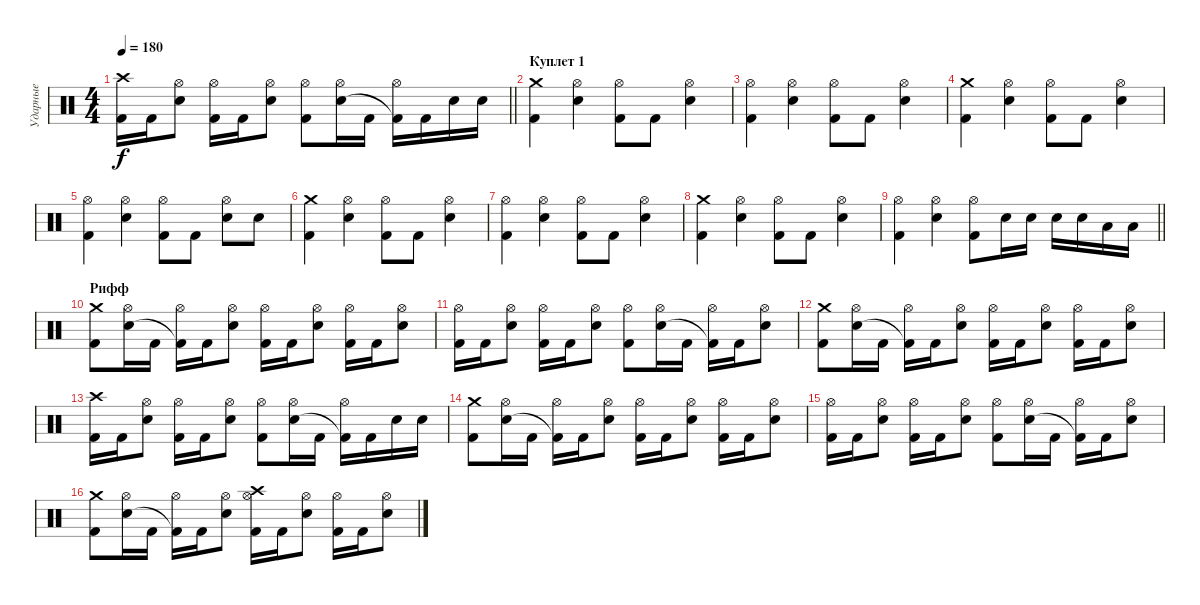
\track ("Ударные" "Ударные") {instrument percussion}
\staff {score}
\articulation defaults
\ts (4 4)
\tempo 180
\clef neutral
\barLineRight lightlight
\ks c
("Crash high (hit)" "Kick (hit) 2").16{dy f} "Kick (hit) 2".16 ("Hi-Hat (open)" "Snare (hit) 2").8 ("Hi-Hat (open)" "Kick (hit) 2").16 "Kick (hit) 2".16 ("Hi-Hat (open)" "Snare (hit) 2").8 ("Hi-Hat (open)" "Kick (hit) 2").8 ("Hi-Hat (open)" "Snare (hit) 2").16 "Kick (hit) 2".16 ("Hi-Hat (open)" "Kick (hit) 2"{t}).16 "Kick (hit) 2".16 "Snare (hit) 2".16 "Snare (hit) 2".16 |
\section ("" "Куплет 1")
("Crash medium (hit)" "Kick (hit) 2").4 ("Hi-Hat (open)" "Snare (hit) 2").4 ("Hi-Hat (open)" "Kick (hit) 2").8 "Kick (hit) 2".8 ("Hi-Hat (open)" "Snare (hit) 2").4 |
("Hi-Hat (open)" "Kick (hit) 2").4 ("Hi-Hat (open)" "Snare (hit) 2").4 ("Hi-Hat (open)" "Kick (hit) 2").8 "Kick (hit) 2".8 ("Hi-Hat (open)" "Snare (hit) 2").4 |
("Crash medium (hit)" "Kick (hit) 2").4 ("Hi-Hat (open)" "Snare (hit) 2").4 ("Hi-Hat (open)" "Kick (hit) 2").8 "Kick (hit) 2".8 ("Hi-Hat (open)" "Snare (hit) 2").4 |
("Hi-Hat (open)" "Kick (hit) 2").4 ("Hi-Hat (open)" "Snare (hit) 2").4 ("Hi-Hat (open)" "Kick (hit) 2").8 "Kick (hit) 2".8 ("Hi-Hat (open)" "Snare (hit) 2").8 "Snare (hit) 2".8 |
("Crash medium (hit)" "Kick (hit) 2").4 ("Hi-Hat (open)" "Snare (hit) 2").4 ("Hi-Hat (open)" "Kick (hit) 2").8 "Kick (hit) 2".8 ("Hi-Hat (open)" "Snare (hit) 2").4 |
("Hi-Hat (open)" "Kick (hit) 2").4 ("Hi-Hat (open)" "Snare (hit) 2").4 ("Hi-Hat (open)" "Kick (hit) 2").8 "Kick (hit) 2".8 ("Hi-Hat (open)" "Snare (hit) 2").4 |
("Crash medium (hit)" "Kick (hit) 2").4 ("Hi-Hat (open)" "Snare (hit) 2").4 ("Hi-Hat (open)" "Kick (hit) 2").8 "Kick (hit) 2".8 ("Hi-Hat (open)" "Snare (hit) 2").4 |
\barLineRight lightlight
("Hi-Hat (open)" "Kick (hit) 2").4 ("Hi-Hat (open)" "Snare (hit) 2").4 ("Hi-Hat (open)" "Kick (hit) 2").8 "Snare (hit) 2".16 "Snare (hit) 2".16 "Snare (hit) 2".16 "Snare (hit) 2".16 "Low Tom (hit)".16 "Low Tom (hit)".16 |
\section ("" "Рифф")
("Crash medium (hit)" "Kick (hit) 2").8 ("Hi-Hat (open)" "Snare (hit) 2").16 "Kick (hit) 2".16 ("Hi-Hat (open)" "Kick (hit) 2"{t}).16 "Kick (hit) 2".16 ("Hi-Hat (open)" "Snare (hit) 2").8 ("Hi-Hat (open)" "Kick (hit) 2").16 "Kick (hit) 2".16 ("Hi-Hat (open)" "Snare (hit) 2").8 ("Hi-Hat (open)" "Kick (hit) 2").16 "Kick (hit) 2".16 ("Hi-Hat (open)" "Snare (hit) 2").8 |
("Hi-Hat (open)" "Kick (hit) 2").16 "Kick (hit) 2".16 ("Hi-Hat (open)" "Snare (hit) 2").8 ("Hi-Hat (open)" "Kick (hit) 2").16 "Kick (hit) 2".16 ("Hi-Hat (open)" "Snare (hit) 2").8 ("Hi-Hat (open)" "Kick (hit) 2").8 ("Hi-Hat (open)" "Snare (hit) 2").16 "Kick (hit) 2".16 ("Hi-Hat (open)" "Kick (hit) 2"{t}).16 "Kick (hit) 2".16 ("Hi-Hat (open)" "Snare (hit) 2").8 |
("Crash medium (hit)" "Kick (hit) 2").8 ("Hi-Hat (open)" "Snare (hit) 2").16 "Kick (hit) 2".16 ("Hi-Hat (open)" "Kick (hit) 2"{t}).16 "Kick (hit) 2".16 ("Hi-Hat (open)" "Snare (hit) 2").8 ("Hi-Hat (open)" "Kick (hit) 2").16 "Kick (hit) 2".16 ("Hi-Hat (open)" "Snare (hit) 2").8 ("Hi-Hat (open)" "Kick (hit) 2").16 "Kick (hit) 2".16 ("Hi-Hat (open)" "Snare (hit) 2").8 |
("Crash high (hit)" "Kick (hit) 2").16 "Kick (hit) 2".16 ("Hi-Hat (open)" "Snare (hit) 2").8 ("Hi-Hat (open)" "Kick (hit) 2").16 "Kick (hit) 2".16 ("Hi-Hat (open)" "Snare (hit) 2").8 ("Hi-Hat (open)" "Kick (hit) 2").8 ("Hi-Hat (open)" "Snare (hit) 2").16 "Kick (hit) 2".16 ("Hi-Hat (open)" "Kick (hit) 2"{t}).16 "Kick (hit) 2".16 "Snare (hit) 2".16 "Snare (hit) 2".16 |
("Crash medium (hit)" "Kick (hit) 2").8 ("Hi-Hat (open)" "Snare (hit) 2").16 "Kick (hit) 2".16 ("Hi-Hat (open)" "Kick (hit) 2"{t}).16 "Kick (hit) 2".16 ("Hi-Hat (open)" "Snare (hit) 2").8 ("Hi-Hat (open)" "Kick (hit) 2").16 "Kick (hit) 2".16 ("Hi-Hat (open)" "Snare (hit) 2").8 ("Hi-Hat (open)" "Kick (hit) 2").16 "Kick (hit) 2".16 ("Hi-Hat (open)" "Snare (hit) 2").8 |
("Hi-Hat (open)" "Kick (hit) 2").16 "Kick (hit) 2".16 ("Hi-Hat (open)" "Snare (hit) 2").8 ("Hi-Hat (open)" "Kick (hit) 2").16 "Kick (hit) 2".16 ("Hi-Hat (open)" "Snare (hit) 2").8 ("Hi-Hat (open)" "Kick (hit) 2").8 ("Hi-Hat (open)" "Snare (hit) 2").16 "Kick (hit) 2".16 ("Hi-Hat (open)" "Kick (hit) 2"{t}).16 "Kick (hit) 2".16 ("Hi-Hat (open)" "Snare (hit) 2").8 |
("Crash medium (hit)" "Kick (hit) 2").8 ("Hi-Hat (open)" "Snare (hit) 2").16 "Kick (hit) 2".16 ("Hi-Hat (open)" "Kick (hit) 2"{t}).16 "Kick (hit) 2".16 ("Hi-Hat (open)" "Snare (hit) 2").8 ("Crash high (hit)" "Hi-Hat (open)" "Kick (hit) 2").16 "Kick (hit) 2".16 ("Hi-Hat (open)" "Snare (hit) 2").8 ("Hi-Hat (open)" "Kick (hit) 2").16 "Kick (hit) 2".16 ("Hi-Hat (open)" "Snare (hit) 2").8
